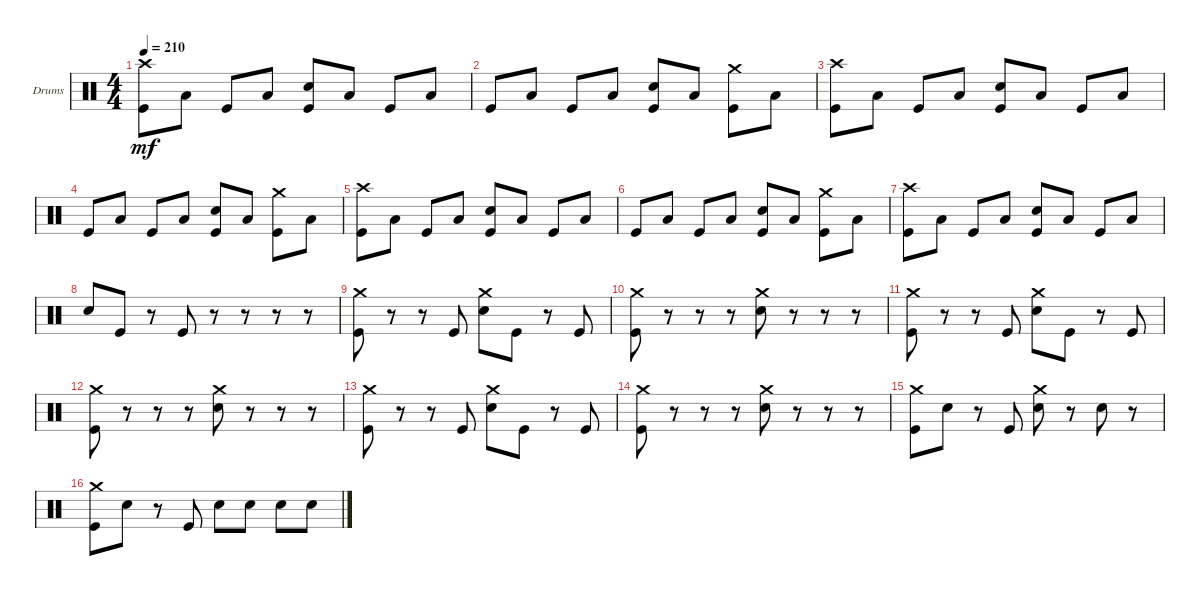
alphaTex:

\defaultSystemsLayout 4
\bracketExtendMode groupsimilarinstruments
\firstSystemTrackNameOrientation horizontal
\otherSystemsTrackNameOrientation horizontal
\track ("Dan Johnson (Drums)" "Drums") {instrument percussion}
\staff {score}
\articulation defaults
\ts (4 4)
\tempo 210
\clef neutral
\ks c
("Kick (hit)" "Crash high (hit)").8{dy mf} "Low Tom (hit)".8 "Kick (hit)".8 "Low Tom (hit)".8 ("Snare (hit) 2" "Kick (hit)").8 "Low Tom (hit)".8 "Kick (hit)".8 "Low Tom (hit)".8 |
"Kick (hit)".8 "Low Tom (hit)".8 "Kick (hit)".8 "Low Tom (hit)".8 ("Snare (hit) 2" "Kick (hit)").8 "Low Tom (hit)".8 ("Kick (hit)" "Crash medium (hit)").8 "Low Tom (hit)".8 |
("Kick (hit)" "Crash high (hit)").8 "Low Tom (hit)".8 "Kick (hit)".8 "Low Tom (hit)".8 ("Snare (hit) 2" "Kick (hit)").8 "Low Tom (hit)".8 "Kick (hit)".8 "Low Tom (hit)".8 |
"Kick (hit)".8 "Low Tom (hit)".8 "Kick (hit)".8 "Low Tom (hit)".8 ("Snare (hit) 2" "Kick (hit)").8 "Low Tom (hit)".8 ("Kick (hit)" "Crash medium (hit)").8 "Low Tom (hit)".8 |
("Kick (hit)" "Crash high (hit)").8 "Low Tom (hit)".8 "Kick (hit)".8 "Low Tom (hit)".8 ("Snare (hit) 2" "Kick (hit)").8 "Low Tom (hit)".8 "Kick (hit)".8 "Low Tom (hit)".8 |
"Kick (hit)".8 "Low Tom (hit)".8 "Kick (hit)".8 "Low Tom (hit)".8 ("Snare (hit) 2" "Kick (hit)").8 "Low Tom (hit)".8 ("Kick (hit)" "Crash medium (hit)").8 "Low Tom (hit)".8 |
("Kick (hit)" "Crash high (hit)").8 "Low Tom (hit)".8 "Kick (hit)".8 "Low Tom (hit)".8 ("Snare (hit) 2" "Kick (hit)").8 "Low Tom (hit)".8 "Kick (hit)".8 "Low Tom (hit)".8 |
"Snare (hit) 2".8 "Kick (hit)".8 r.8 "Kick (hit)".8 r.8 r.8 r.8 r.8 |
("Kick (hit)" "Crash medium (hit)").8 r.8 r.8 "Kick (hit)".8 ("Snare (hit) 2" "Crash medium (hit)").8 "Kick (hit)".8 r.8 "Kick (hit)".8 |
("Kick (hit)" "Crash medium (hit)").8 r.8 r.8 r.8 ("Snare (hit) 2" "Crash medium (hit)").8 r.8 r.8 r.8 |
("Kick (hit)" "Crash medium (hit)").8 r.8 r.8 "Kick (hit)".8 ("Snare (hit) 2" "Crash medium (hit)").8 "Kick (hit)".8 r.8 "Kick (hit)".8 |
("Kick (hit)" "Crash medium (hit)").8 r.8 r.8 r.8 ("Snare (hit) 2" "Crash medium (hit)").8 r.8 r.8 r.8 |
("Kick (hit)" "Crash medium (hit)").8 r.8 r.8 "Kick (hit)".8 ("Snare (hit) 2" "Crash medium (hit)").8 "Kick (hit)".8 r.8 "Kick (hit)".8 |
("Kick (hit)" "Crash medium (hit)").8 r.8 r.8 r.8 ("Snare (hit) 2" "Crash medium (hit)").8 r.8 r.8 r.8 |
("Kick (hit)" "Crash medium (hit)").8 "Snare (hit) 2".8 r.8 "Kick (hit)".8 ("Snare (hit) 2" "Crash medium (hit)").8 r.8 "Snare (hit) 2".8 r.8 |
("Kick (hit)" "Crash medium (hit)").8 "Snare (hit) 2".8 r.8 "Kick (hit)".8 "Snare (hit) 2".8 "Snare (hit) 2".8 "Snare (hit) 2".8 "Snare (hit) 2".8
